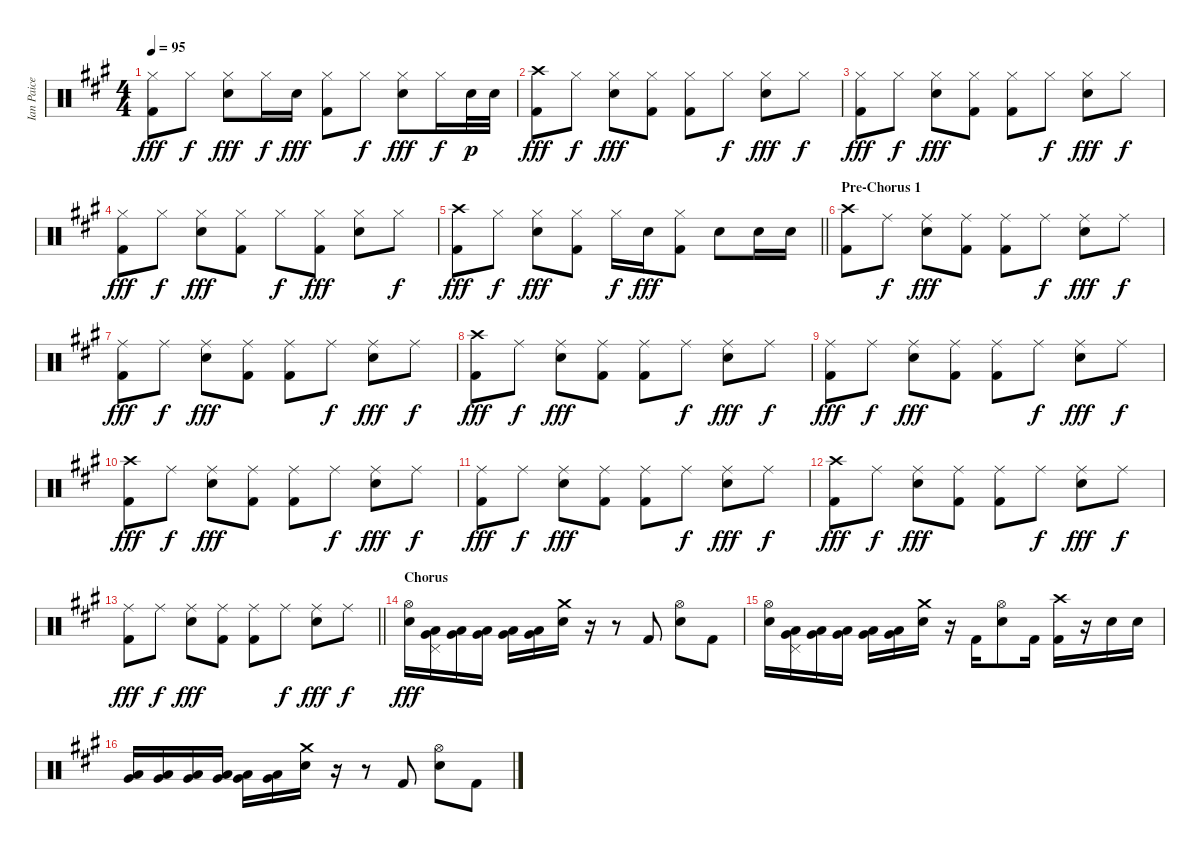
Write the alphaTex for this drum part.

\track ("Ian Paice" "Ian Paice") {instrument percussion}
\staff {score}
\articulation defaults
\ts (4 4)
\tempo 95
\clef neutral
\ks f#minor
("Hi-Hat (closed)" "Kick (hit) 2").8{dy fff} "Hi-Hat (closed)".8{dy f} ("Hi-Hat (closed)" "Snare (hit) 2").8{dy fff} "Hi-Hat (closed)".16{dy f} "Snare (hit) 2".16{dy fff} ("Hi-Hat (closed)" "Kick (hit) 2").8 "Hi-Hat (closed)".8{dy f} ("Hi-Hat (closed)" "Snare (hit) 2").8{dy fff} "Hi-Hat (closed)".16{dy f} "Snare (hit) 2".32{dy p} "Snare (hit) 2".32 |
("Crash high (hit)" "Kick (hit) 2").8{dy fff} "Hi-Hat (closed)".8{dy f} ("Hi-Hat (closed)" "Snare (hit) 2").8{dy fff} ("Hi-Hat (closed)" "Kick (hit) 2").8 ("Hi-Hat (closed)" "Kick (hit) 2").8 "Hi-Hat (closed)".8{dy f} ("Hi-Hat (closed)" "Snare (hit) 2").8{dy fff} "Hi-Hat (closed)".8{dy f} |
("Hi-Hat (closed)" "Kick (hit) 2").8{dy fff} "Hi-Hat (closed)".8{dy f} ("Hi-Hat (closed)" "Snare (hit) 2").8{dy fff} ("Hi-Hat (closed)" "Kick (hit) 2").8 ("Hi-Hat (closed)" "Kick (hit) 2").8 "Hi-Hat (closed)".8{dy f} ("Hi-Hat (closed)" "Snare (hit) 2").8{dy fff} "Hi-Hat (closed)".8{dy f} |
("Hi-Hat (closed)" "Kick (hit) 2").8{dy fff} "Hi-Hat (closed)".8{dy f} ("Hi-Hat (closed)" "Snare (hit) 2").8{dy fff} ("Hi-Hat (closed)" "Kick (hit) 2").8 "Hi-Hat (closed)".8{dy f} ("Hi-Hat (closed)" "Kick (hit) 2").8{dy fff} ("Hi-Hat (closed)" "Snare (hit) 2").8 "Hi-Hat (closed)".8{dy f} |
\barLineRight lightlight
("Crash high (hit)" "Kick (hit) 2").8{dy fff} "Hi-Hat (closed)".8{dy f} ("Hi-Hat (closed)" "Snare (hit) 2").8{dy fff} ("Hi-Hat (closed)" "Kick (hit) 2").8 "Hi-Hat (closed)".16{dy f} "Snare (hit) 2".16{dy fff} ("Hi-Hat (closed)" "Kick (hit) 2").8 "Snare (hit) 2".8 "Snare (hit) 2".16 "Snare (hit) 2".16 |
\section ("" "Pre-Chorus 1")
("Crash high (hit)" "Kick (hit) 2").8 "Ride (middle)".8{dy f} ("Ride (middle)" "Snare (hit) 2").8{dy fff} ("Ride (middle)" "Kick (hit) 2").8 ("Ride (middle)" "Kick (hit) 2").8 "Ride (middle)".8{dy f} ("Ride (middle)" "Snare (hit) 2").8{dy fff} "Ride (middle)".8{dy f} |
("Ride (middle)" "Kick (hit) 2").8{dy fff} "Ride (middle)".8{dy f} ("Ride (middle)" "Snare (hit) 2").8{dy fff} ("Ride (middle)" "Kick (hit) 2").8 ("Ride (middle)" "Kick (hit) 2").8 "Ride (middle)".8{dy f} ("Ride (middle)" "Snare (hit) 2").8{dy fff} "Ride (middle)".8{dy f} |
("Crash high (hit)" "Kick (hit) 2").8{dy fff} "Ride (middle)".8{dy f} ("Ride (middle)" "Snare (hit) 2").8{dy fff} ("Ride (middle)" "Kick (hit) 2").8 ("Ride (middle)" "Kick (hit) 2").8 "Ride (middle)".8{dy f} ("Ride (middle)" "Snare (hit) 2").8{dy fff} "Ride (middle)".8{dy f} |
("Ride (middle)" "Kick (hit) 2").8{dy fff} "Ride (middle)".8{dy f} ("Ride (middle)" "Snare (hit) 2").8{dy fff} ("Ride (middle)" "Kick (hit) 2").8 ("Ride (middle)" "Kick (hit) 2").8 "Ride (middle)".8{dy f} ("Ride (middle)" "Snare (hit) 2").8{dy fff} "Ride (middle)".8{dy f} |
("Crash high (hit)" "Kick (hit) 2").8{dy fff} "Ride (middle)".8{dy f} ("Ride (middle)" "Snare (hit) 2").8{dy fff} ("Ride (middle)" "Kick (hit) 2").8 ("Ride (middle)" "Kick (hit) 2").8 "Ride (middle)".8{dy f} ("Ride (middle)" "Snare (hit) 2").8{dy fff} "Ride (middle)".8{dy f} |
("Ride (middle)" "Kick (hit) 2").8{dy fff} "Ride (middle)".8{dy f} ("Ride (middle)" "Snare (hit) 2").8{dy fff} ("Ride (middle)" "Kick (hit) 2").8 ("Ride (middle)" "Kick (hit) 2").8 "Ride (middle)".8{dy f} ("Ride (middle)" "Snare (hit) 2").8{dy fff} "Ride (middle)".8{dy f} |
("Crash high (hit)" "Kick (hit) 2").8{dy fff} "Ride (middle)".8{dy f} ("Ride (middle)" "Snare (hit) 2").8{dy fff} ("Ride (middle)" "Kick (hit) 2").8 ("Ride (middle)" "Kick (hit) 2").8 "Ride (middle)".8{dy f} ("Ride (middle)" "Snare (hit) 2").8{dy fff} "Ride (middle)".8{dy f} |
\barLineRight lightlight
("Ride (middle)" "Kick (hit) 2").8{dy fff} "Ride (middle)".8{dy f} ("Ride (middle)" "Snare (hit) 2").8{dy fff} ("Ride (middle)" "Kick (hit) 2").8 ("Ride (middle)" "Kick (hit) 2").8 "Ride (middle)".8{dy f} ("Ride (middle)" "Snare (hit) 2").8{dy fff} "Ride (middle)".8{dy f} |
\section ("" "Chorus")
("Hi-Hat (open)" "Snare (hit) 2").16{dy fff} ("Pedal Hi-Hat (hit)" "Low Floor Tom (hit)" "Very Low Tom (hit)").16 ("Low Floor Tom (hit)" "Very Low Tom (hit)").16 ("Low Floor Tom (hit)" "Very Low Tom (hit)").16 ("Low Floor Tom (hit)" "Very Low Tom (hit)").16 ("Low Floor Tom (hit)" "Very Low Tom (hit)").16 ("Crash medium (hit)" "Snare (hit) 2").16 r.16 r.8 "Kick (hit) 2".8 ("Hi-Hat (open)" "Snare (hit) 2").8 "Kick (hit) 2".8 |
("Hi-Hat (open)" "Snare (hit) 2").16 ("Pedal Hi-Hat (hit)" "Low Floor Tom (hit)" "Very Low Tom (hit)").16 ("Low Floor Tom (hit)" "Very Low Tom (hit)").16 ("Low Floor Tom (hit)" "Very Low Tom (hit)").16 ("Low Floor Tom (hit)" "Very Low Tom (hit)").16 ("Low Floor Tom (hit)" "Very Low Tom (hit)").16 ("Crash medium (hit)" "Snare (hit) 2").16 r.16 "Kick (hit) 2".16 ("Hi-Hat (open)" "Snare (hit) 2").8 "Kick (hit) 2".16 ("Crash high (hit)" "Kick (hit) 2").16 r.16 "Snare (hit) 2".16 "Snare (hit) 2".16 |
("Low Floor Tom (hit)" "Very Low Tom (hit)").16 ("Low Floor Tom (hit)" "Very Low Tom (hit)").16 ("Low Floor Tom (hit)" "Very Low Tom (hit)").16 ("Low Floor Tom (hit)" "Very Low Tom (hit)").16 ("Low Floor Tom (hit)" "Very Low Tom (hit)").16 ("Low Floor Tom (hit)" "Very Low Tom (hit)").16 ("Crash medium (hit)" "Snare (hit) 2").16 r.16 r.8 "Kick (hit) 2".8 ("Hi-Hat (open)" "Snare (hit) 2").8 "Kick (hit) 2".8
